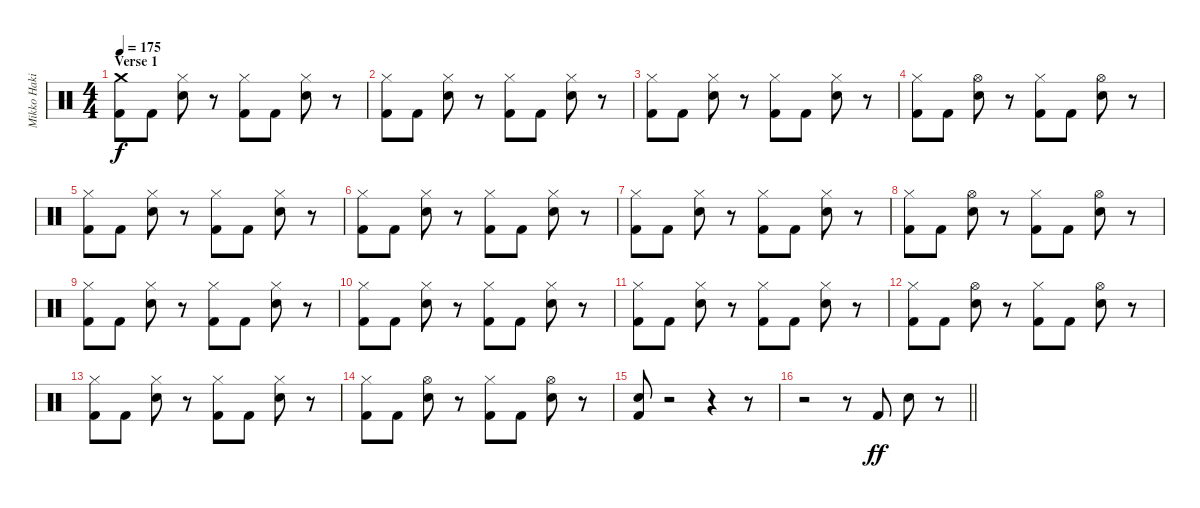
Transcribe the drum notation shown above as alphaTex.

\track ("Mikko Hakila - Drums" "Mikko Haki") {instrument percussion}
\staff {score}
\articulation defaults
\ts (4 4)
\section ("" "Verse 1")
\tempo 175
\clef neutral
\ks c
("Crash medium (hit)" "Kick (hit) 2").8{dy f} "Kick (hit) 2".8 ("Hi-Hat (closed)" "Electric Snare (hit)").8 r.8 ("Hi-Hat (closed)" "Kick (hit) 2").8 "Kick (hit) 2".8 ("Hi-Hat (closed)" "Electric Snare (hit)").8 r.8 |
("Hi-Hat (closed)" "Kick (hit) 2").8 "Kick (hit) 2".8 ("Hi-Hat (closed)" "Electric Snare (hit)").8 r.8 ("Hi-Hat (closed)" "Kick (hit) 2").8 "Kick (hit) 2".8 ("Hi-Hat (closed)" "Electric Snare (hit)").8 r.8 |
("Hi-Hat (closed)" "Kick (hit) 2").8 "Kick (hit) 2".8 ("Hi-Hat (closed)" "Electric Snare (hit)").8 r.8 ("Hi-Hat (closed)" "Kick (hit) 2").8 "Kick (hit) 2".8 ("Hi-Hat (closed)" "Electric Snare (hit)").8 r.8 |
("Hi-Hat (closed)" "Kick (hit) 2").8 "Kick (hit) 2".8 ("Hi-Hat (open)" "Electric Snare (hit)").8 r.8 ("Hi-Hat (closed)" "Kick (hit) 2").8 "Kick (hit) 2".8 ("Hi-Hat (open)" "Electric Snare (hit)").8 r.8 |
("Hi-Hat (closed)" "Kick (hit) 2").8 "Kick (hit) 2".8 ("Hi-Hat (closed)" "Electric Snare (hit)").8 r.8 ("Hi-Hat (closed)" "Kick (hit) 2").8 "Kick (hit) 2".8 ("Hi-Hat (closed)" "Electric Snare (hit)").8 r.8 |
("Hi-Hat (closed)" "Kick (hit) 2").8 "Kick (hit) 2".8 ("Hi-Hat (closed)" "Electric Snare (hit)").8 r.8 ("Hi-Hat (closed)" "Kick (hit) 2").8 "Kick (hit) 2".8 ("Hi-Hat (closed)" "Electric Snare (hit)").8 r.8 |
("Hi-Hat (closed)" "Kick (hit) 2").8 "Kick (hit) 2".8 ("Hi-Hat (closed)" "Electric Snare (hit)").8 r.8 ("Hi-Hat (closed)" "Kick (hit) 2").8 "Kick (hit) 2".8 ("Hi-Hat (closed)" "Electric Snare (hit)").8 r.8 |
("Hi-Hat (closed)" "Kick (hit) 2").8 "Kick (hit) 2".8 ("Hi-Hat (open)" "Electric Snare (hit)").8 r.8 ("Hi-Hat (closed)" "Kick (hit) 2").8 "Kick (hit) 2".8 ("Hi-Hat (open)" "Electric Snare (hit)").8 r.8 |
("Hi-Hat (closed)" "Kick (hit) 2").8 "Kick (hit) 2".8 ("Hi-Hat (closed)" "Electric Snare (hit)").8 r.8 ("Hi-Hat (closed)" "Kick (hit) 2").8 "Kick (hit) 2".8 ("Hi-Hat (closed)" "Electric Snare (hit)").8 r.8 |
("Hi-Hat (closed)" "Kick (hit) 2").8 "Kick (hit) 2".8 ("Hi-Hat (closed)" "Electric Snare (hit)").8 r.8 ("Hi-Hat (closed)" "Kick (hit) 2").8 "Kick (hit) 2".8 ("Hi-Hat (closed)" "Electric Snare (hit)").8 r.8 |
("Hi-Hat (closed)" "Kick (hit) 2").8 "Kick (hit) 2".8 ("Hi-Hat (closed)" "Electric Snare (hit)").8 r.8 ("Hi-Hat (closed)" "Kick (hit) 2").8 "Kick (hit) 2".8 ("Hi-Hat (closed)" "Electric Snare (hit)").8 r.8 |
("Hi-Hat (closed)" "Kick (hit) 2").8 "Kick (hit) 2".8 ("Hi-Hat (open)" "Electric Snare (hit)").8 r.8 ("Hi-Hat (closed)" "Kick (hit) 2").8 "Kick (hit) 2".8 ("Hi-Hat (open)" "Electric Snare (hit)").8 r.8 |
("Hi-Hat (closed)" "Kick (hit) 2").8 "Kick (hit) 2".8 ("Hi-Hat (closed)" "Electric Snare (hit)").8 r.8 ("Hi-Hat (closed)" "Kick (hit) 2").8 "Kick (hit) 2".8 ("Hi-Hat (closed)" "Electric Snare (hit)").8 r.8 |
("Hi-Hat (closed)" "Kick (hit) 2").8 "Kick (hit) 2".8 ("Hi-Hat (open)" "Electric Snare (hit)").8 r.8 ("Hi-Hat (closed)" "Kick (hit) 2").8 "Kick (hit) 2".8 ("Hi-Hat (open)" "Electric Snare (hit)").8 r.8 |
("Electric Snare (hit)" "Kick (hit) 2").8 r.2 r.4 r.8 |
\barLineRight lightlight
r.2 r.8 "Kick (hit) 2".8{dy ff} "Electric Snare (hit)".8 r.8
